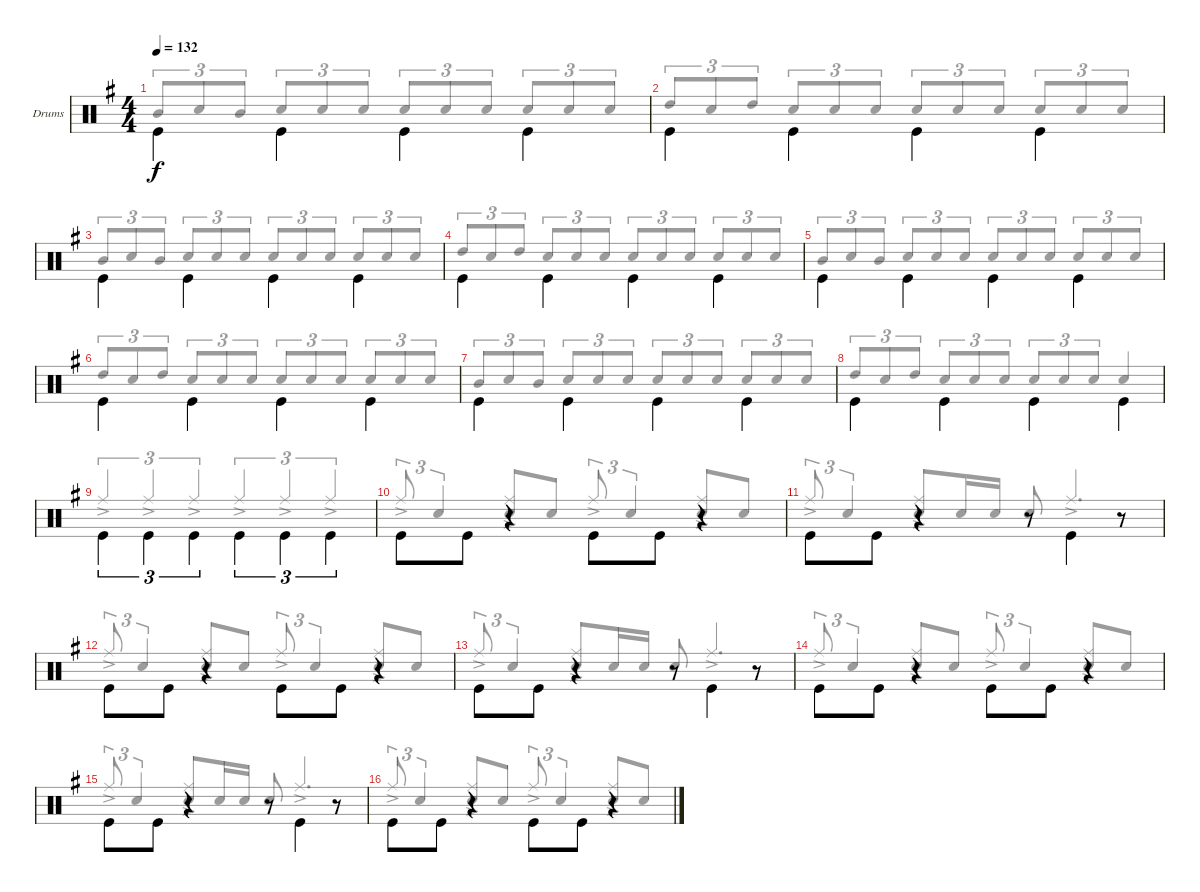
\bracketExtendMode groupsimilarinstruments
\firstSystemTrackNameOrientation horizontal
\otherSystemsTrackNameOrientation horizontal
\track ("Drums" "Drums") {instrument percussion}
\staff {score}
\articulation defaults
\voice
\ts (4 4)
\tempo 132
\clef neutral
\scale
1.04288
\ks g "Kick (hit)".4{dy f beam invert} "Kick (hit)".4{beam invert} "Kick (hit)".4{beam invert} "Kick (hit)".4{beam invert}
|
\scale
0.957125 "Kick (hit)".4{beam invert} "Kick (hit)".4{beam invert} "Kick (hit)".4{beam invert} "Kick (hit)".4{beam invert} |
\scale
1.04288 "Kick (hit)".4{beam invert} "Kick (hit)".4{beam invert} "Kick (hit)".4{beam invert} "Kick (hit)".4{beam invert} |
\scale
0.957125 "Kick (hit)".4{beam invert} "Kick (hit)".4{beam invert} "Kick (hit)".4{beam invert} "Kick (hit)".4{beam invert} |
\scale
1.04288 "Kick (hit)".4{beam invert} "Kick (hit)".4{beam invert} "Kick (hit)".4{beam invert} "Kick (hit)".4{beam invert} |
\scale
0.957125 "Kick (hit)".4{beam invert} "Kick (hit)".4{beam invert} "Kick (hit)".4{beam invert} "Kick (hit)".4{beam invert} |
\scale
1.07314 "Kick (hit)".4{beam invert} "Kick (hit)".4{beam invert} "Kick (hit)".4{beam invert} "Kick (hit)".4{beam invert} |
\scale
0.92686 "Kick (hit)".4{beam invert} "Kick (hit)".4{beam invert} "Kick (hit)".4{beam invert} "Kick (hit)".4{beam invert} |
\scale
1.04288 "Kick (hit)".4{tu (3 2) beam invert} "Kick (hit)".4{tu (3 2) beam invert} "Kick (hit)".4{tu (3 2) beam invert} "Kick (hit)".4{tu (3 2) beam invert} "Kick (hit)".4{tu (3 2) beam invert} "Kick (hit)".4{tu (3 2) beam invert} |
\scale
0.957125 "Kick (hit)".8{beam invert} "Kick (hit)".8 r.4 "Kick (hit)".8{beam invert} "Kick (hit)".8 r.4 |
\scale
1.04288 "Kick (hit)".8{beam invert} "Kick (hit)".8 r.4 r.8{beam invert} "Kick (hit)".4{beam invert} r.8 |
\scale
0.957125 "Kick (hit)".8{beam invert} "Kick (hit)".8 r.4 "Kick (hit)".8{beam invert} "Kick (hit)".8 r.4 |
\scale
1.04288 "Kick (hit)".8{beam invert} "Kick (hit)".8 r.4 r.8{beam invert} "Kick (hit)".4{beam invert} r.8 |
\scale
0.957125 "Kick (hit)".8{beam invert} "Kick (hit)".8 r.4 "Kick (hit)".8{beam invert} "Kick (hit)".8 r.4 |
\scale
1.04288 "Kick (hit)".8{beam invert} "Kick (hit)".8 r.4 r.8{beam invert} "Kick (hit)".4{beam invert} r.8 |
\scale
0.957125 "Kick (hit)".8{beam invert} "Kick (hit)".8 r.4 "Kick (hit)".8{beam invert} "Kick (hit)".8 r.4
\voice
\clef neutral
\ottava regular
\simile none
\scale
1.04288
\ks g "Mid Tom (hit)".8{tu (3 2) dy f beam invert} "Snare (hit) 2".8{tu (3 2)} "Mid Tom (hit)".8{tu (3 2)} "Snare (hit) 2".8{tu (3 2) beam invert} "Snare (hit) 2".8{tu (3 2) beam invert} "Snare (hit) 2".8{tu (3 2) beam invert} "Snare (hit) 2".8{tu (3 2) beam invert} "Snare (hit) 2".8{tu (3 2) beam invert} "Snare (hit) 2".8{tu (3 2) beam invert} "Snare (hit) 2".8{tu (3 2) beam invert} "Snare (hit) 2".8{tu (3 2) beam invert} "Snare (hit) 2".8{tu (3 2) beam invert}
|
\scale
0.957125 "High Tom (hit)".8{tu (3 2) beam invert} "Snare (hit) 2".8{tu (3 2)} "High Tom (hit)".8{tu (3 2)} "Snare (hit) 2".8{tu (3 2) beam invert} "Snare (hit) 2".8{tu (3 2) beam invert} "Snare (hit) 2".8{tu (3 2) beam invert} "Snare (hit) 2".8{tu (3 2) beam invert} "Snare (hit) 2".8{tu (3 2) beam invert} "Snare (hit) 2".8{tu (3 2) beam invert} "Snare (hit) 2".8{tu (3 2) beam invert} "Snare (hit) 2".8{tu (3 2) beam invert} "Snare (hit) 2".8{tu (3 2) beam invert} |
\scale
1.04288 "Mid Tom (hit)".8{tu (3 2) beam invert} "Snare (hit) 2".8{tu (3 2)} "Mid Tom (hit)".8{tu (3 2)} "Snare (hit) 2".8{tu (3 2) beam invert} "Snare (hit) 2".8{tu (3 2) beam invert} "Snare (hit) 2".8{tu (3 2) beam invert} "Snare (hit) 2".8{tu (3 2) beam invert} "Snare (hit) 2".8{tu (3 2) beam invert} "Snare (hit) 2".8{tu (3 2) beam invert} "Snare (hit) 2".8{tu (3 2) beam invert} "Snare (hit) 2".8{tu (3 2) beam invert} "Snare (hit) 2".8{tu (3 2) beam invert} |
\scale
0.957125 "High Tom (hit)".8{tu (3 2) beam invert} "Snare (hit) 2".8{tu (3 2)} "High Tom (hit)".8{tu (3 2)} "Snare (hit) 2".8{tu (3 2) beam invert} "Snare (hit) 2".8{tu (3 2) beam invert} "Snare (hit) 2".8{tu (3 2) beam invert} "Snare (hit) 2".8{tu (3 2) beam invert} "Snare (hit) 2".8{tu (3 2) beam invert} "Snare (hit) 2".8{tu (3 2) beam invert} "Snare (hit) 2".8{tu (3 2) beam invert} "Snare (hit) 2".8{tu (3 2) beam invert} "Snare (hit) 2".8{tu (3 2) beam invert} |
\scale
1.04288 "Mid Tom (hit)".8{tu (3 2) beam invert} "Snare (hit) 2".8{tu (3 2)} "Mid Tom (hit)".8{tu (3 2)} "Snare (hit) 2".8{tu (3 2) beam invert} "Snare (hit) 2".8{tu (3 2) beam invert} "Snare (hit) 2".8{tu (3 2) beam invert} "Snare (hit) 2".8{tu (3 2) beam invert} "Snare (hit) 2".8{tu (3 2) beam invert} "Snare (hit) 2".8{tu (3 2) beam invert} "Snare (hit) 2".8{tu (3 2) beam invert} "Snare (hit) 2".8{tu (3 2) beam invert} "Snare (hit) 2".8{tu (3 2) beam invert} |
\scale
0.957125 "High Tom (hit)".8{tu (3 2) beam invert} "Snare (hit) 2".8{tu (3 2)} "High Tom (hit)".8{tu (3 2)} "Snare (hit) 2".8{tu (3 2) beam invert} "Snare (hit) 2".8{tu (3 2) beam invert} "Snare (hit) 2".8{tu (3 2) beam invert} "Snare (hit) 2".8{tu (3 2) beam invert} "Snare (hit) 2".8{tu (3 2) beam invert} "Snare (hit) 2".8{tu (3 2) beam invert} "Snare (hit) 2".8{tu (3 2) beam invert} "Snare (hit) 2".8{tu (3 2) beam invert} "Snare (hit) 2".8{tu (3 2) beam invert} |
\scale
1.07314 "Mid Tom (hit)".8{tu (3 2) beam invert} "Snare (hit) 2".8{tu (3 2)} "Mid Tom (hit)".8{tu (3 2)} "Snare (hit) 2".8{tu (3 2) beam invert} "Snare (hit) 2".8{tu (3 2) beam invert} "Snare (hit) 2".8{tu (3 2) beam invert} "Snare (hit) 2".8{tu (3 2) beam invert} "Snare (hit) 2".8{tu (3 2) beam invert} "Snare (hit) 2".8{tu (3 2) beam invert} "Snare (hit) 2".8{tu (3 2) beam invert} "Snare (hit) 2".8{tu (3 2) beam invert} "Snare (hit) 2".8{tu (3 2) beam invert} |
\scale
0.92686 "High Tom (hit)".8{tu (3 2) beam invert} "Snare (hit) 2".8{tu (3 2)} "High Tom (hit)".8{tu (3 2)} "Snare (hit) 2".8{tu (3 2) beam invert} "Snare (hit) 2".8{tu (3 2) beam invert} "Snare (hit) 2".8{tu (3 2) beam invert} "Snare (hit) 2".8{tu (3 2) beam invert} "Snare (hit) 2".8{tu (3 2) beam invert} "Snare (hit) 2".8{tu (3 2) beam invert} "Snare (hit) 2".4{beam invert} |
\scale
1.04288 "Ride (middle)"{ac}.4{tu (3 2) beam invert} "Ride (middle)"{ac}.4{tu (3 2) beam invert} "Ride (middle)"{ac}.4{tu (3 2) beam invert} "Ride (middle)"{ac}.4{tu (3 2) beam invert} "Ride (middle)"{ac}.4{tu (3 2) beam invert} "Ride (middle)"{ac}.4{tu (3 2) beam invert} |
\scale
0.957125 "Ride (middle)"{ac}.8{tu (3 2) beam invert} "Snare (hit) 2".4{tu (3 2) beam invert} ("Snare (hit) 2" "Ride (middle)"{ac}).8{beam invert} "Snare (hit) 2".8 "Ride (middle)"{ac}.8{tu (3 2) beam invert} "Snare (hit) 2".4{tu (3 2) beam invert} ("Snare (hit) 2" "Ride (middle)"{ac}).8{beam invert} "Snare (hit) 2".8 |
\scale
1.04288 "Ride (middle)"{ac}.8{tu (3 2) beam invert} "Snare (hit) 2".4{tu (3 2) beam invert} ("Snare (hit) 2" "Ride (middle)"{ac}).8{beam invert} "Snare (hit) 2".16 "Snare (hit) 2".16 "Snare (hit) 2".8{beam invert} "Ride (middle)"{ac}.4{d beam invert} |
\scale
0.957125 "Ride (middle)"{ac}.8{tu (3 2) beam invert} "Snare (hit) 2".4{tu (3 2) beam invert} ("Snare (hit) 2" "Ride (middle)"{ac}).8{beam invert} "Snare (hit) 2".8 "Ride (middle)"{ac}.8{tu (3 2) beam invert} "Snare (hit) 2".4{tu (3 2) beam invert} ("Snare (hit) 2" "Ride (middle)"{ac}).8{beam invert} "Snare (hit) 2".8 |
\scale
1.04288 "Ride (middle)"{ac}.8{tu (3 2) beam invert} "Snare (hit) 2".4{tu (3 2) beam invert} ("Snare (hit) 2" "Ride (middle)"{ac}).8{beam invert} "Snare (hit) 2".16 "Snare (hit) 2".16 "Snare (hit) 2".8{beam invert} "Ride (middle)"{ac}.4{d beam invert} |
\scale
0.957125 "Ride (middle)"{ac}.8{tu (3 2) beam invert} "Snare (hit) 2".4{tu (3 2) beam invert} ("Snare (hit) 2" "Ride (middle)"{ac}).8{beam invert} "Snare (hit) 2".8 "Ride (middle)"{ac}.8{tu (3 2) beam invert} "Snare (hit) 2".4{tu (3 2) beam invert} ("Snare (hit) 2" "Ride (middle)"{ac}).8{beam invert} "Snare (hit) 2".8 |
\scale
1.04288 "Ride (middle)"{ac}.8{tu (3 2) beam invert} "Snare (hit) 2".4{tu (3 2) beam invert} ("Snare (hit) 2" "Ride (middle)"{ac}).8{beam invert} "Snare (hit) 2".16 "Snare (hit) 2".16 "Snare (hit) 2".8{beam invert} "Ride (middle)"{ac}.4{d beam invert} |
\scale
0.957125 "Ride (middle)"{ac}.8{tu (3 2) beam invert} "Snare (hit) 2".4{tu (3 2) beam invert} ("Snare (hit) 2" "Ride (middle)"{ac}).8{beam invert} "Snare (hit) 2".8 "Ride (middle)"{ac}.8{tu (3 2) beam invert} "Snare (hit) 2".4{tu (3 2) beam invert} ("Snare (hit) 2" "Ride (middle)"{ac}).8{beam invert} "Snare (hit) 2".8
